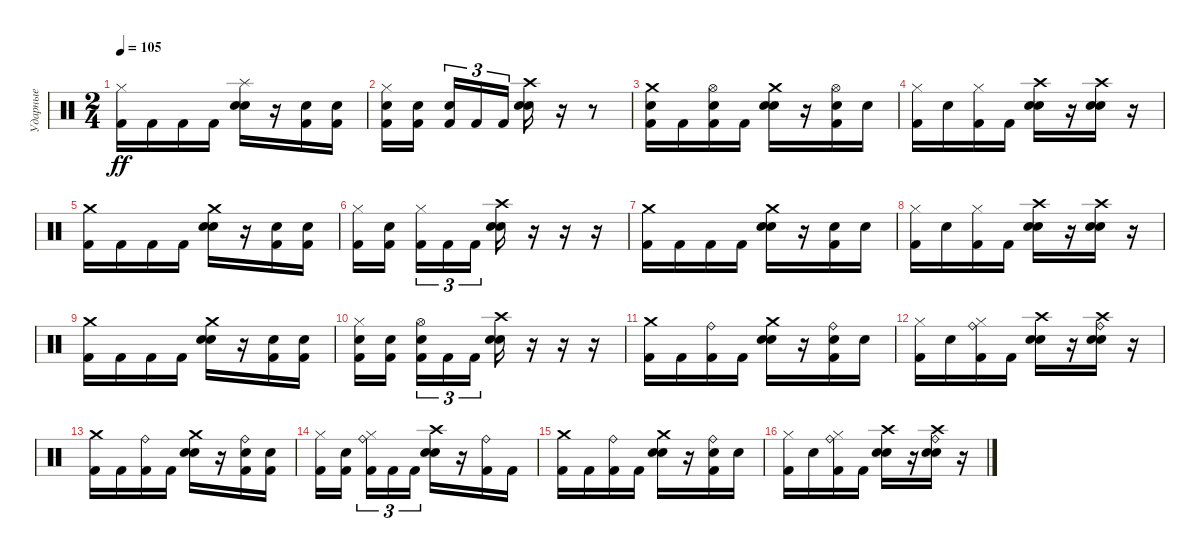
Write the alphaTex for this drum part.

\track ("Ударные" "Ударные") {instrument percussion}
\staff {score}
\articulation defaults
\ts (2 4)
\tempo 105
\clef neutral
\ks c
("Hi-Hat (closed)" "Kick (hit) 2").16{dy ff} "Kick (hit) 2".16 "Kick (hit) 2".16 "Kick (hit) 2".16 ("Splash (hit)" "Snare (hit) 2" "Electric Snare (hit)").16 r.16 ("Kick (hit) 2" "Electric Snare (hit)").16 ("Kick (hit) 2" "Electric Snare (hit)").16 |
("Hi-Hat (closed)" "Kick (hit) 2" "Electric Snare (hit)").16 ("Kick (hit) 2" "Electric Snare (hit)").16 ("Kick (hit) 2" "Electric Snare (hit)").16{tu (3 2)} "Kick (hit) 2".16{tu (3 2)} "Kick (hit) 2".16{tu (3 2)} ("Crash high (hit)" "Snare (hit) 2" "Electric Snare (hit)").16 r.16 r.8 |
("Crash medium (hit)" "Kick (hit) 2" "Electric Snare (hit)").16 "Kick (hit) 2".16 ("Hi-Hat (open)" "Kick (hit) 2" "Electric Snare (hit)").16 "Kick (hit) 2".16 ("Crash medium (hit)" "Snare (hit) 2" "Electric Snare (hit)").16 r.16 ("Hi-Hat (open)" "Kick (hit) 2" "Electric Snare (hit)").16 "Electric Snare (hit)".16 |
("Hi-Hat (closed)" "Kick (hit) 2").16 "Electric Snare (hit)".16 ("Hi-Hat (closed)" "Kick (hit) 2").16 "Kick (hit) 2".16 ("Crash high (hit)" "Snare (hit) 2" "Electric Snare (hit)").16 r.16 ("Crash high (hit)" "Snare (hit) 2" "Electric Snare (hit)").16 r.16 |
("Crash medium (hit)" "Kick (hit) 2").16 "Kick (hit) 2".16 "Kick (hit) 2".16 "Kick (hit) 2".16 ("Crash medium (hit)" "Snare (hit) 2" "Electric Snare (hit)").16 r.16 ("Kick (hit) 2" "Electric Snare (hit)").16 ("Kick (hit) 2" "Electric Snare (hit)").16 |
("Hi-Hat (closed)" "Kick (hit) 2").16 ("Kick (hit) 2" "Electric Snare (hit)").16 ("Hi-Hat (closed)" "Kick (hit) 2").16{tu (3 2)} "Kick (hit) 2".16{tu (3 2)} "Kick (hit) 2".16{tu (3 2)} ("Crash high (hit)" "Snare (hit) 2" "Electric Snare (hit)").16 r.16 r.16 r.16 |
("Crash medium (hit)" "Kick (hit) 2").16 "Kick (hit) 2".16 "Kick (hit) 2".16 "Kick (hit) 2".16 ("Crash medium (hit)" "Snare (hit) 2" "Electric Snare (hit)").16 r.16 ("Kick (hit) 2" "Electric Snare (hit)").16 "Electric Snare (hit)".16 |
("Hi-Hat (closed)" "Kick (hit) 2").16 "Electric Snare (hit)".16 ("Hi-Hat (closed)" "Kick (hit) 2").16 "Kick (hit) 2".16 ("Crash high (hit)" "Snare (hit) 2" "Electric Snare (hit)").16 r.16 ("Crash high (hit)" "Snare (hit) 2" "Electric Snare (hit)").16 r.16 |
("Crash medium (hit)" "Kick (hit) 2").16 "Kick (hit) 2".16 "Kick (hit) 2".16 "Kick (hit) 2".16 ("Crash medium (hit)" "Snare (hit) 2" "Electric Snare (hit)").16 r.16 ("Kick (hit) 2" "Electric Snare (hit)").16 ("Kick (hit) 2" "Electric Snare (hit)").16 |
("Hi-Hat (closed)" "Kick (hit) 2" "Electric Snare (hit)").16 ("Kick (hit) 2" "Electric Snare (hit)").16 ("Hi-Hat (open)" "Kick (hit) 2" "Electric Snare (hit)").16{tu (3 2)} "Kick (hit) 2".16{tu (3 2)} "Kick (hit) 2".16{tu (3 2)} ("Crash high (hit)" "Snare (hit) 2" "Electric Snare (hit)").16 r.16 r.16 r.16 |
("Crash medium (hit)" "Kick (hit) 2").16 "Kick (hit) 2".16 ("Ride (bell)" "Kick (hit) 2").16 "Kick (hit) 2".16 ("Crash medium (hit)" "Snare (hit) 2" "Electric Snare (hit)").16 r.16 ("Ride (bell)" "Kick (hit) 2" "Electric Snare (hit)").16 "Electric Snare (hit)".16 |
("Hi-Hat (closed)" "Kick (hit) 2").16 "Electric Snare (hit)".16 ("Hi-Hat (closed)" "Ride (bell)" "Kick (hit) 2").16 "Kick (hit) 2".16 ("Crash high (hit)" "Snare (hit) 2" "Electric Snare (hit)").16 r.16 ("Crash high (hit)" "Ride (bell)" "Snare (hit) 2" "Electric Snare (hit)").16 r.16 |
("Crash medium (hit)" "Kick (hit) 2").16 "Kick (hit) 2".16 ("Ride (bell)" "Kick (hit) 2").16 "Kick (hit) 2".16 ("Crash medium (hit)" "Snare (hit) 2" "Electric Snare (hit)").16 r.16 ("Ride (bell)" "Kick (hit) 2" "Electric Snare (hit)").16 ("Kick (hit) 2" "Electric Snare (hit)").16 |
("Hi-Hat (closed)" "Kick (hit) 2").16 ("Kick (hit) 2" "Electric Snare (hit)").16 ("Hi-Hat (closed)" "Ride (bell)" "Kick (hit) 2").16{tu (3 2)} "Kick (hit) 2".16{tu (3 2)} "Kick (hit) 2".16{tu (3 2)} ("Crash high (hit)" "Snare (hit) 2" "Electric Snare (hit)").16 r.16 ("Ride (bell)" "Kick (hit) 2").16 "Kick (hit) 2".16 |
("Crash medium (hit)" "Kick (hit) 2").16 "Kick (hit) 2".16 ("Ride (bell)" "Kick (hit) 2").16 "Kick (hit) 2".16 ("Crash medium (hit)" "Snare (hit) 2" "Electric Snare (hit)").16 r.16 ("Ride (bell)" "Kick (hit) 2" "Electric Snare (hit)").16 "Electric Snare (hit)".16 |
("Hi-Hat (closed)" "Kick (hit) 2").16 "Electric Snare (hit)".16 ("Hi-Hat (closed)" "Ride (bell)" "Kick (hit) 2").16 "Kick (hit) 2".16 ("Crash high (hit)" "Snare (hit) 2" "Electric Snare (hit)").16 r.16 ("Crash high (hit)" "Ride (bell)" "Snare (hit) 2" "Electric Snare (hit)").16 r.16
